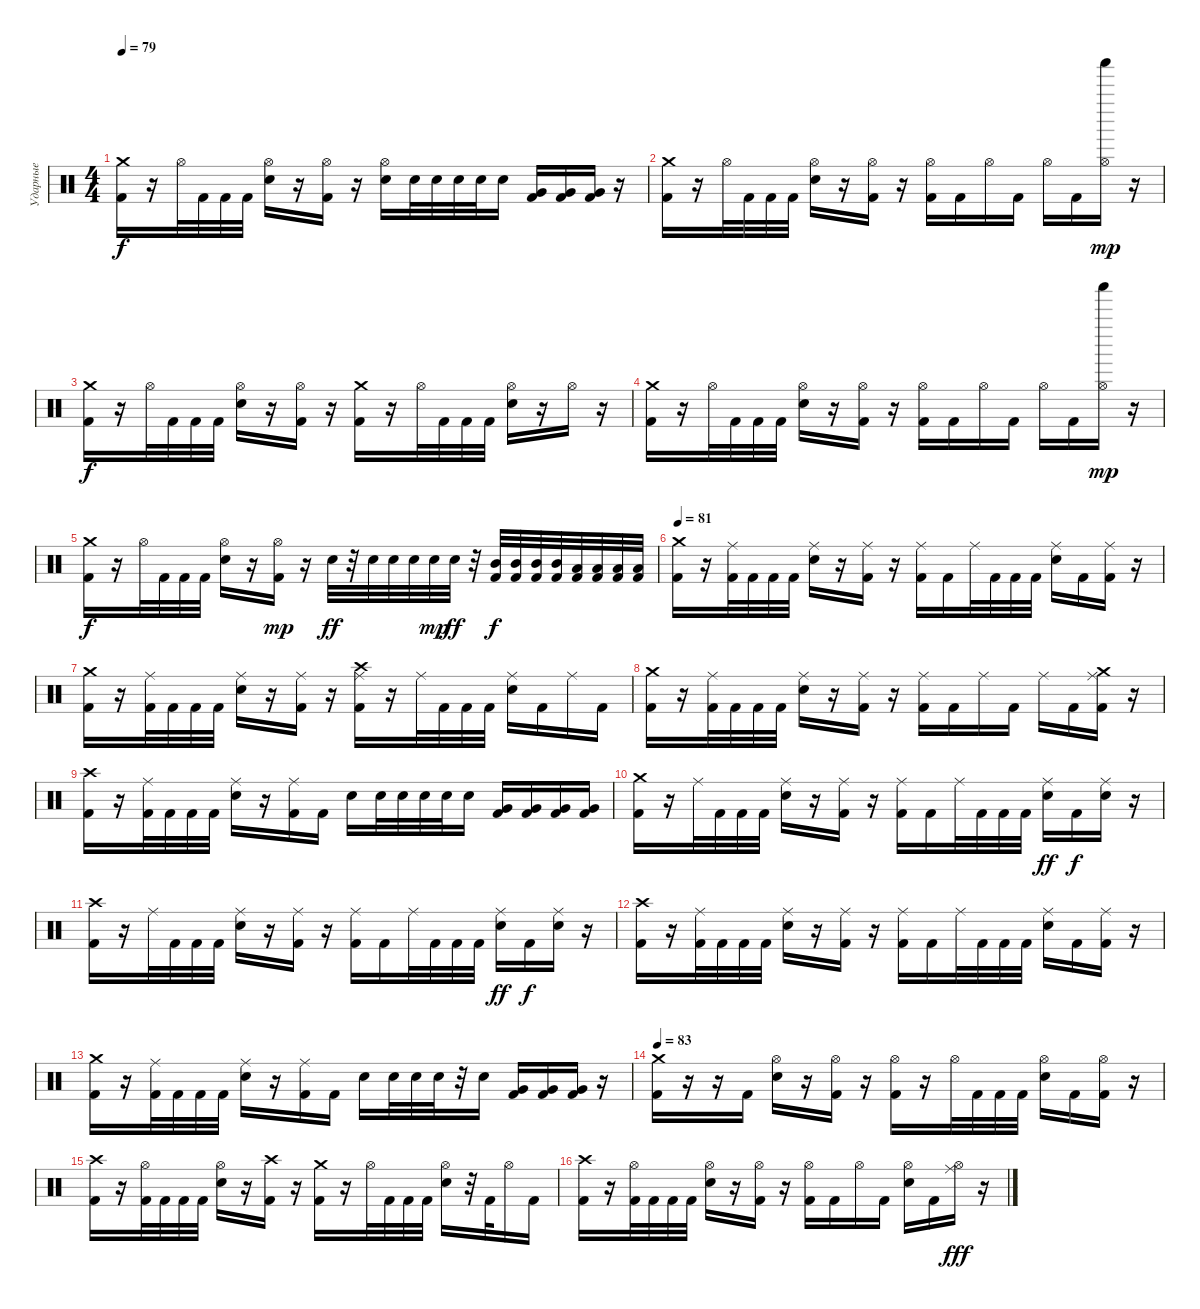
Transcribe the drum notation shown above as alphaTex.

\track ("Ударные" "Ударные") {instrument percussion}
\staff {score}
\articulation defaults
\ts (4 4)
\tempo 79
\clef neutral
\ks c
("Crash medium (hit)" "Kick (hit) 2").16{dy f} r.16 "Hi-Hat (open)".32 "Kick (hit) 2".32 "Kick (hit) 2".32 "Kick (hit) 2".32 ("Hi-Hat (open)" "Electric Snare (hit)").16 r.16 ("Hi-Hat (open)" "Kick (hit) 2").16 r.16 ("Hi-Hat (open)" "Electric Snare (hit)").16 "Electric Snare (hit)".32 "Electric Snare (hit)".32 "Electric Snare (hit)".32 "Electric Snare (hit)".32 "Electric Snare (hit)".16 ("Very Low Tom (hit)" "Kick (hit) 2").16 ("Very Low Tom (hit)" "Kick (hit) 2").16 ("Very Low Tom (hit)" "Kick (hit) 2").16 r.16 |
("Crash medium (hit)" "Kick (hit) 2").16 r.16 "Hi-Hat (open)".32 "Kick (hit) 2".32 "Kick (hit) 2".32 "Kick (hit) 2".32 ("Hi-Hat (open)" "Electric Snare (hit)").16 r.16 ("Hi-Hat (open)" "Kick (hit) 2").16 r.16 ("Hi-Hat (open)" "Kick (hit) 2").16 "Kick (hit) 2".16 "Hi-Hat (open)".16 "Kick (hit) 2".16 "Hi-Hat (open)".16 "Kick (hit) 2".16 ("Hi-Hat (open)" "Shaker (hit)").16{dy mp} r.16 |
("Crash medium (hit)" "Kick (hit) 2").16{dy f} r.16 "Hi-Hat (open)".32 "Kick (hit) 2".32 "Kick (hit) 2".32 "Kick (hit) 2".32 ("Hi-Hat (open)" "Electric Snare (hit)").16 r.16 ("Hi-Hat (open)" "Kick (hit) 2").16 r.16 ("Crash medium (hit)" "Kick (hit) 2").16 r.16 "Hi-Hat (open)".32 "Kick (hit) 2".32 "Kick (hit) 2".32 "Kick (hit) 2".32 ("Hi-Hat (open)" "Electric Snare (hit)").16 r.16 "Hi-Hat (open)".16 r.16 |
("Crash medium (hit)" "Kick (hit) 2").16 r.16 "Hi-Hat (open)".32 "Kick (hit) 2".32 "Kick (hit) 2".32 "Kick (hit) 2".32 ("Hi-Hat (open)" "Electric Snare (hit)").16 r.16 ("Hi-Hat (open)" "Kick (hit) 2").16 r.16 ("Hi-Hat (open)" "Kick (hit) 2").16 "Kick (hit) 2".16 "Hi-Hat (open)".16 "Kick (hit) 2".16 "Hi-Hat (open)".16 "Kick (hit) 2".16 ("Hi-Hat (open)" "Shaker (hit)").16{dy mp} r.16 |
("Crash medium (hit)" "Kick (hit) 2").16{dy f} r.16 "Hi-Hat (open)".32 "Kick (hit) 2".32 "Kick (hit) 2".32 "Kick (hit) 2".32 ("Hi-Hat (open)" "Electric Snare (hit)").16 r.16 ("Hi-Hat (open)" "Kick (hit) 2").16{dy mp} r.16 "Electric Snare (hit)".32{dy ff} r.32 "Electric Snare (hit)".32 "Electric Snare (hit)".32 "Electric Snare (hit)".32 "Electric Snare (hit)".32{dy mp} "Electric Snare (hit)".32{dy ff} r.32 ("Mid Tom (hit)" "Kick (hit) 2").32{dy f} ("Mid Tom (hit)" "Kick (hit) 2").32 ("Mid Tom (hit)" "Kick (hit) 2").32 ("Mid Tom (hit)" "Kick (hit) 2").32 ("Low Tom (hit)" "Kick (hit) 2").32 ("Low Tom (hit)" "Kick (hit) 2").32 ("Low Tom (hit)" "Kick (hit) 2").32 ("Low Tom (hit)" "Kick (hit) 2").32 |
\tempo 81
("Crash medium (hit)" "Kick (hit) 2").16 r.16 ("Ride (middle)" "Kick (hit) 2").32 "Kick (hit) 2".32 "Kick (hit) 2".32 "Kick (hit) 2".32 ("Ride (middle)" "Electric Snare (hit)").16 r.16 ("Ride (middle)" "Kick (hit) 2").16 r.16 ("Ride (middle)" "Kick (hit) 2").16 "Kick (hit) 2".16 "Ride (middle)".32 "Kick (hit) 2".32 "Kick (hit) 2".32 "Kick (hit) 2".32 ("Ride (middle)" "Electric Snare (hit)").16 "Kick (hit) 2".16 ("Ride (middle)" "Kick (hit) 2").16 r.16 |
("Crash medium (hit)" "Kick (hit) 2").16 r.16 ("Ride (middle)" "Kick (hit) 2").32 "Kick (hit) 2".32 "Kick (hit) 2".32 "Kick (hit) 2".32 ("Ride (middle)" "Electric Snare (hit)").16 r.16 ("Ride (middle)" "Kick (hit) 2").16 r.16 ("Ride (middle)" "Crash high (hit)" "Kick (hit) 2").16 r.16 "Ride (middle)".32 "Kick (hit) 2".32 "Kick (hit) 2".32 "Kick (hit) 2".32 ("Ride (middle)" "Electric Snare (hit)").16 "Kick (hit) 2".16 "Ride (middle)".16 "Kick (hit) 2".16 |
("Crash medium (hit)" "Kick (hit) 2").16 r.16 ("Ride (middle)" "Kick (hit) 2").32 "Kick (hit) 2".32 "Kick (hit) 2".32 "Kick (hit) 2".32 ("Ride (middle)" "Electric Snare (hit)").16 r.16 ("Ride (middle)" "Kick (hit) 2").16 r.16 ("Ride (middle)" "Kick (hit) 2").16 "Kick (hit) 2".16 "Ride (middle)".16 "Kick (hit) 2".16 "Ride (middle)".16 "Kick (hit) 2".16 ("Ride (middle)" "Crash medium (hit)" "Kick (hit) 2").16 r.16 |
("Crash high (hit)" "Kick (hit) 2").16 r.16 ("Ride (middle)" "Kick (hit) 2").32 "Kick (hit) 2".32 "Kick (hit) 2".32 "Kick (hit) 2".32 ("Ride (middle)" "Electric Snare (hit)").16 r.16 ("Ride (middle)" "Kick (hit) 2").16 "Kick (hit) 2".16 "Electric Snare (hit)".16 "Electric Snare (hit)".32 "Electric Snare (hit)".32 "Electric Snare (hit)".32 "Electric Snare (hit)".32 "Electric Snare (hit)".16 ("Very Low Tom (hit)" "Kick (hit) 2").16 ("Very Low Tom (hit)" "Kick (hit) 2").16 ("Very Low Tom (hit)" "Kick (hit) 2").16 ("Very Low Tom (hit)" "Kick (hit) 2").16 |
("Crash medium (hit)" "Kick (hit) 2").16 r.16 "Ride (middle)".32 "Kick (hit) 2".32 "Kick (hit) 2".32 "Kick (hit) 2".32 ("Ride (middle)" "Electric Snare (hit)").16 r.16 ("Ride (middle)" "Kick (hit) 2").16 r.16 ("Ride (middle)" "Kick (hit) 2").16 "Kick (hit) 2".16 "Ride (middle)".32 "Kick (hit) 2".32 "Kick (hit) 2".32 "Kick (hit) 2".32 ("Ride (middle)" "Electric Snare (hit)").16{dy ff} "Kick (hit) 2".16{dy f} ("Ride (middle)" "Electric Snare (hit)").16 r.16 |
("Crash high (hit)" "Kick (hit) 2").16 r.16 "Ride (middle)".32 "Kick (hit) 2".32 "Kick (hit) 2".32 "Kick (hit) 2".32 ("Ride (middle)" "Electric Snare (hit)").16 r.16 ("Ride (middle)" "Kick (hit) 2").16 r.16 ("Ride (middle)" "Kick (hit) 2").16 "Kick (hit) 2".16 "Ride (middle)".32 "Kick (hit) 2".32 "Kick (hit) 2".32 "Kick (hit) 2".32 ("Ride (middle)" "Electric Snare (hit)").16{dy ff} "Kick (hit) 2".16{dy f} ("Ride (middle)" "Electric Snare (hit)").16 r.16 |
("Crash high (hit)" "Kick (hit) 2").16 r.16 ("Ride (middle)" "Kick (hit) 2").32 "Kick (hit) 2".32 "Kick (hit) 2".32 "Kick (hit) 2".32 ("Ride (middle)" "Electric Snare (hit)").16 r.16 ("Ride (middle)" "Kick (hit) 2").16 r.16 ("Ride (middle)" "Kick (hit) 2").16 "Kick (hit) 2".16 "Ride (middle)".32 "Kick (hit) 2".32 "Kick (hit) 2".32 "Kick (hit) 2".32 ("Ride (middle)" "Electric Snare (hit)").16 "Kick (hit) 2".16 ("Ride (middle)" "Kick (hit) 2").16 r.16 |
("Crash medium (hit)" "Kick (hit) 2").16 r.16 ("Ride (middle)" "Kick (hit) 2").32 "Kick (hit) 2".32 "Kick (hit) 2".32 "Kick (hit) 2".32 ("Ride (middle)" "Electric Snare (hit)").16 r.16 ("Ride (middle)" "Kick (hit) 2").16 "Kick (hit) 2".16 "Electric Snare (hit)".16 "Electric Snare (hit)".32 "Electric Snare (hit)".32 "Electric Snare (hit)".32 r.32 "Electric Snare (hit)".16 ("Very Low Tom (hit)" "Kick (hit) 2").16 ("Very Low Tom (hit)" "Kick (hit) 2").16 ("Very Low Tom (hit)" "Kick (hit) 2").16 r.16 |
\tempo 83
("Crash medium (hit)" "Kick (hit) 2").16 r.16 r.16 "Kick (hit) 2".16 ("Hi-Hat (open)" "Electric Snare (hit)").16 r.16 ("Hi-Hat (open)" "Kick (hit) 2").16 r.16 ("Hi-Hat (open)" "Kick (hit) 2").16 r.16 "Hi-Hat (open)".32 "Kick (hit) 2".32 "Kick (hit) 2".32 "Kick (hit) 2".32 ("Hi-Hat (open)" "Electric Snare (hit)").16 "Kick (hit) 2".16 ("Hi-Hat (open)" "Kick (hit) 2").16 r.16 |
("Crash high (hit)" "Kick (hit) 2").16 r.16 ("Hi-Hat (open)" "Kick (hit) 2").32 "Kick (hit) 2".32 "Kick (hit) 2".32 "Kick (hit) 2".32 ("Hi-Hat (open)" "Electric Snare (hit)").16 r.16 ("Crash high (hit)" "Kick (hit) 2").16 r.16 ("Crash medium (hit)" "Kick (hit) 2").16 r.16 "Hi-Hat (open)".32 "Kick (hit) 2".32 "Kick (hit) 2".32 "Kick (hit) 2".32 ("Hi-Hat (open)" "Electric Snare (hit)").16 r.32 "Kick (hit) 2".32 "Hi-Hat (open)".16 "Kick (hit) 2".16 |
("Crash high (hit)" "Kick (hit) 2").16 r.16 ("Hi-Hat (open)" "Kick (hit) 2").32 "Kick (hit) 2".32 "Kick (hit) 2".32 "Kick (hit) 2".32 ("Hi-Hat (open)" "Electric Snare (hit)").16 r.16 ("Hi-Hat (open)" "Kick (hit) 2").16 r.16 ("Hi-Hat (open)" "Kick (hit) 2").16 "Kick (hit) 2".16 "Hi-Hat (open)".16 "Kick (hit) 2".16 ("Hi-Hat (open)" "Electric Snare (hit)").16 "Kick (hit) 2".16 ("Hi-Hat (open)" "Ride (middle)").16{dy fff} r.16
